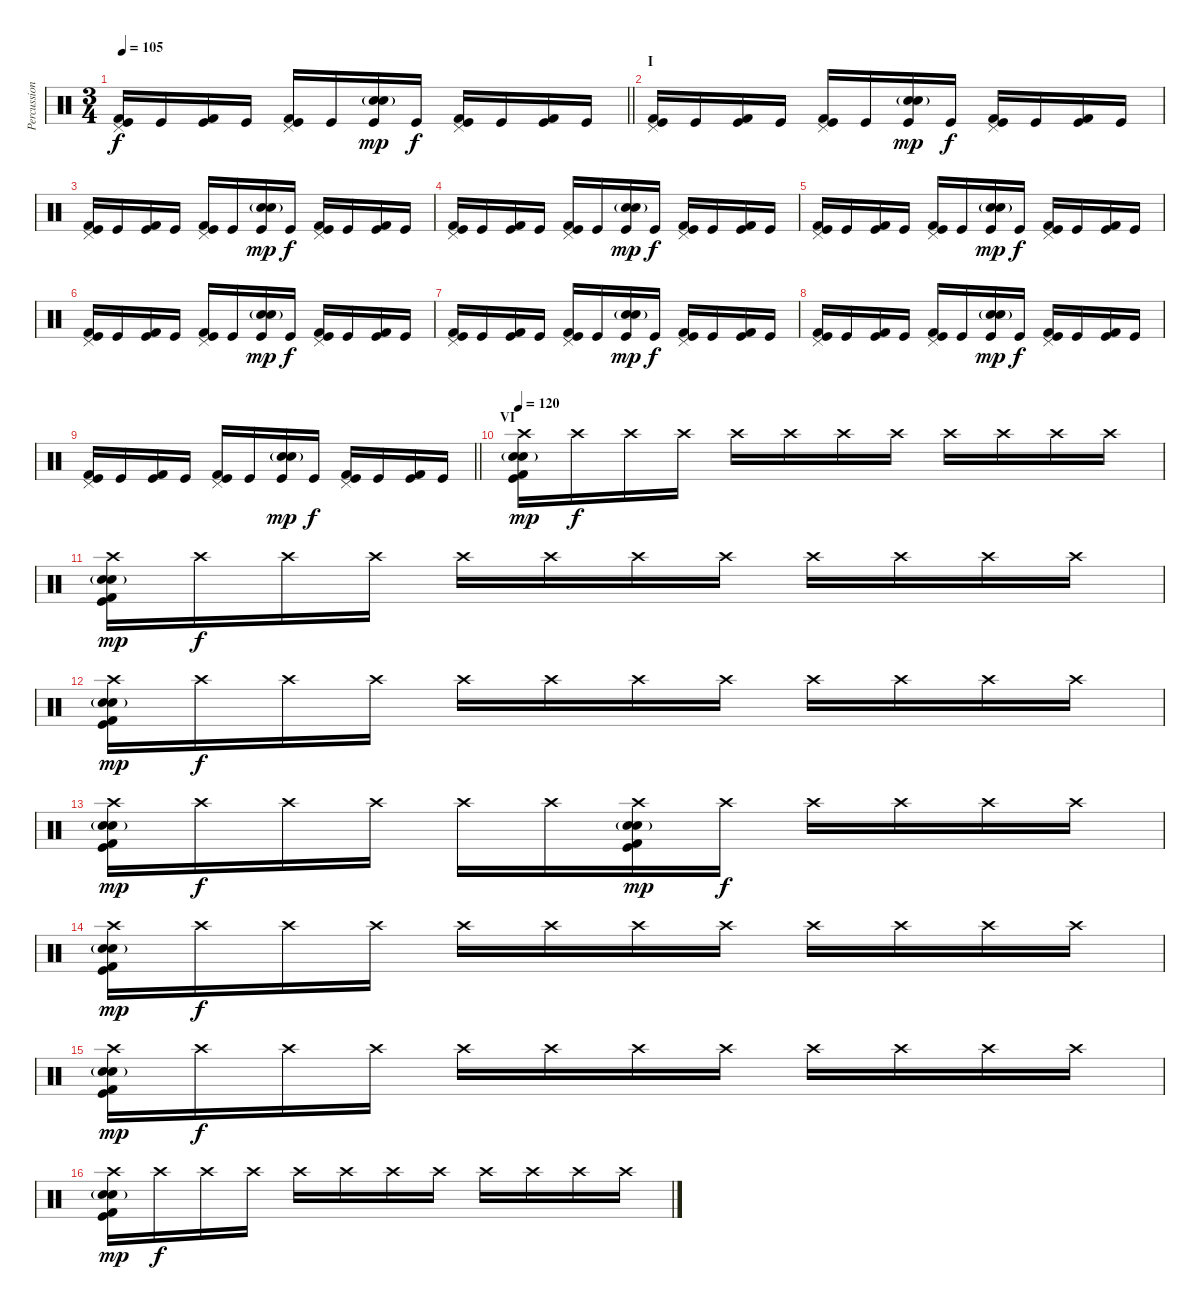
\track ("Percussion" "Percussion") {instrument percussion}
\staff {score}
\articulation defaults
\ts (3 4)
\tempo 105
\clef neutral
\barLineRight lightlight
\ks c
("Kick (hit) 2" "Kick (hit)" "Pedal Hi-Hat (hit)").16{dy f} "Kick (hit)".16 ("Kick (hit) 2" "Kick (hit)").16 "Kick (hit)".16 ("Kick (hit) 2" "Kick (hit)" "Pedal Hi-Hat (hit)").16 "Kick (hit)".16 ("Electric Snare (hit)" "Snare (hit) 2"{g} "Kick (hit)").16{dy mp} "Kick (hit)".16{dy f} ("Kick (hit) 2" "Kick (hit)" "Pedal Hi-Hat (hit)").16 "Kick (hit)".16 ("Kick (hit) 2" "Kick (hit)").16 "Kick (hit)".16 |
\section ("" "I")
("Kick (hit) 2" "Kick (hit)" "Pedal Hi-Hat (hit)").16 "Kick (hit)".16 ("Kick (hit) 2" "Kick (hit)").16 "Kick (hit)".16 ("Kick (hit) 2" "Kick (hit)" "Pedal Hi-Hat (hit)").16 "Kick (hit)".16 ("Electric Snare (hit)" "Snare (hit) 2"{g} "Kick (hit)").16{dy mp} "Kick (hit)".16{dy f} ("Kick (hit) 2" "Kick (hit)" "Pedal Hi-Hat (hit)").16 "Kick (hit)".16 ("Kick (hit) 2" "Kick (hit)").16 "Kick (hit)".16 |
("Kick (hit) 2" "Kick (hit)" "Pedal Hi-Hat (hit)").16 "Kick (hit)".16 ("Kick (hit) 2" "Kick (hit)").16 "Kick (hit)".16 ("Kick (hit) 2" "Kick (hit)" "Pedal Hi-Hat (hit)").16 "Kick (hit)".16 ("Electric Snare (hit)" "Snare (hit) 2"{g} "Kick (hit)").16{dy mp} "Kick (hit)".16{dy f} ("Kick (hit) 2" "Kick (hit)" "Pedal Hi-Hat (hit)").16 "Kick (hit)".16 ("Kick (hit) 2" "Kick (hit)").16 "Kick (hit)".16 |
("Kick (hit) 2" "Kick (hit)" "Pedal Hi-Hat (hit)").16 "Kick (hit)".16 ("Kick (hit) 2" "Kick (hit)").16 "Kick (hit)".16 ("Kick (hit) 2" "Kick (hit)" "Pedal Hi-Hat (hit)").16 "Kick (hit)".16 ("Electric Snare (hit)" "Snare (hit) 2"{g} "Kick (hit)").16{dy mp} "Kick (hit)".16{dy f} ("Kick (hit) 2" "Kick (hit)" "Pedal Hi-Hat (hit)").16 "Kick (hit)".16 ("Kick (hit) 2" "Kick (hit)").16 "Kick (hit)".16 |
("Kick (hit) 2" "Kick (hit)" "Pedal Hi-Hat (hit)").16 "Kick (hit)".16 ("Kick (hit) 2" "Kick (hit)").16 "Kick (hit)".16 ("Kick (hit) 2" "Kick (hit)" "Pedal Hi-Hat (hit)").16 "Kick (hit)".16 ("Electric Snare (hit)" "Snare (hit) 2"{g} "Kick (hit)").16{dy mp} "Kick (hit)".16{dy f} ("Kick (hit) 2" "Kick (hit)" "Pedal Hi-Hat (hit)").16 "Kick (hit)".16 ("Kick (hit) 2" "Kick (hit)").16 "Kick (hit)".16 |
("Kick (hit) 2" "Kick (hit)" "Pedal Hi-Hat (hit)").16 "Kick (hit)".16 ("Kick (hit) 2" "Kick (hit)").16 "Kick (hit)".16 ("Kick (hit) 2" "Kick (hit)" "Pedal Hi-Hat (hit)").16 "Kick (hit)".16 ("Electric Snare (hit)" "Snare (hit) 2"{g} "Kick (hit)").16{dy mp} "Kick (hit)".16{dy f} ("Kick (hit) 2" "Kick (hit)" "Pedal Hi-Hat (hit)").16 "Kick (hit)".16 ("Kick (hit) 2" "Kick (hit)").16 "Kick (hit)".16 |
("Kick (hit) 2" "Kick (hit)" "Pedal Hi-Hat (hit)").16 "Kick (hit)".16 ("Kick (hit) 2" "Kick (hit)").16 "Kick (hit)".16 ("Kick (hit) 2" "Kick (hit)" "Pedal Hi-Hat (hit)").16 "Kick (hit)".16 ("Electric Snare (hit)" "Snare (hit) 2"{g} "Kick (hit)").16{dy mp} "Kick (hit)".16{dy f} ("Kick (hit) 2" "Kick (hit)" "Pedal Hi-Hat (hit)").16 "Kick (hit)".16 ("Kick (hit) 2" "Kick (hit)").16 "Kick (hit)".16 |
("Kick (hit) 2" "Kick (hit)" "Pedal Hi-Hat (hit)").16 "Kick (hit)".16 ("Kick (hit) 2" "Kick (hit)").16 "Kick (hit)".16 ("Kick (hit) 2" "Kick (hit)" "Pedal Hi-Hat (hit)").16 "Kick (hit)".16 ("Electric Snare (hit)" "Snare (hit) 2"{g} "Kick (hit)").16{dy mp} "Kick (hit)".16{dy f} ("Kick (hit) 2" "Kick (hit)" "Pedal Hi-Hat (hit)").16 "Kick (hit)".16 ("Kick (hit) 2" "Kick (hit)").16 "Kick (hit)".16 |
\barLineRight lightlight
("Kick (hit) 2" "Kick (hit)" "Pedal Hi-Hat (hit)").16 "Kick (hit)".16 ("Kick (hit) 2" "Kick (hit)").16 "Kick (hit)".16 ("Kick (hit) 2" "Kick (hit)" "Pedal Hi-Hat (hit)").16 "Kick (hit)".16 ("Electric Snare (hit)" "Snare (hit) 2"{g} "Kick (hit)").16{dy mp} "Kick (hit)".16{dy f} ("Kick (hit) 2" "Kick (hit)" "Pedal Hi-Hat (hit)").16 "Kick (hit)".16 ("Kick (hit) 2" "Kick (hit)").16 "Kick (hit)".16 |
\section ("" "VI")
\tempo 120
("Crash high (hit)" "Electric Snare (hit)" "Snare (hit) 2"{g} "Kick (hit) 2" "Kick (hit)").16{dy mp} "Crash high (hit)".16{dy f} "Crash high (hit)".16 "Crash high (hit)".16 "Crash high (hit)".16 "Crash high (hit)".16 "Crash high (hit)".16 "Crash high (hit)".16 "Crash high (hit)".16 "Crash high (hit)".16 "Crash high (hit)".16 "Crash high (hit)".16 |
("Crash high (hit)" "Electric Snare (hit)" "Snare (hit) 2"{g} "Kick (hit) 2" "Kick (hit)").16{dy mp} "Crash high (hit)".16{dy f} "Crash high (hit)".16 "Crash high (hit)".16 "Crash high (hit)".16 "Crash high (hit)".16 "Crash high (hit)".16 "Crash high (hit)".16 "Crash high (hit)".16 "Crash high (hit)".16 "Crash high (hit)".16 "Crash high (hit)".16 |
("Crash high (hit)" "Electric Snare (hit)" "Snare (hit) 2"{g} "Kick (hit) 2" "Kick (hit)").16{dy mp} "Crash high (hit)".16{dy f} "Crash high (hit)".16 "Crash high (hit)".16 "Crash high (hit)".16 "Crash high (hit)".16 "Crash high (hit)".16 "Crash high (hit)".16 "Crash high (hit)".16 "Crash high (hit)".16 "Crash high (hit)".16 "Crash high (hit)".16 |
("Crash high (hit)" "Electric Snare (hit)" "Snare (hit) 2"{g} "Kick (hit) 2" "Kick (hit)").16{dy mp} "Crash high (hit)".16{dy f} "Crash high (hit)".16 "Crash high (hit)".16 "Crash high (hit)".16 "Crash high (hit)".16 ("Crash high (hit)" "Electric Snare (hit)" "Snare (hit) 2"{g} "Kick (hit) 2" "Kick (hit)").16{dy mp} "Crash high (hit)".16{dy f} "Crash high (hit)".16 "Crash high (hit)".16 "Crash high (hit)".16 "Crash high (hit)".16 |
("Crash high (hit)" "Electric Snare (hit)" "Snare (hit) 2"{g} "Kick (hit) 2" "Kick (hit)").16{dy mp} "Crash high (hit)".16{dy f} "Crash high (hit)".16 "Crash high (hit)".16 "Crash high (hit)".16 "Crash high (hit)".16 "Crash high (hit)".16 "Crash high (hit)".16 "Crash high (hit)".16 "Crash high (hit)".16 "Crash high (hit)".16 "Crash high (hit)".16 |
("Crash high (hit)" "Electric Snare (hit)" "Snare (hit) 2"{g} "Kick (hit) 2" "Kick (hit)").16{dy mp} "Crash high (hit)".16{dy f} "Crash high (hit)".16 "Crash high (hit)".16 "Crash high (hit)".16 "Crash high (hit)".16 "Crash high (hit)".16 "Crash high (hit)".16 "Crash high (hit)".16 "Crash high (hit)".16 "Crash high (hit)".16 "Crash high (hit)".16 |
("Crash high (hit)" "Electric Snare (hit)" "Snare (hit) 2"{g} "Kick (hit) 2" "Kick (hit)").16{dy mp} "Crash high (hit)".16{dy f} "Crash high (hit)".16 "Crash high (hit)".16 "Crash high (hit)".16 "Crash high (hit)".16 "Crash high (hit)".16 "Crash high (hit)".16 "Crash high (hit)".16 "Crash high (hit)".16 "Crash high (hit)".16 "Crash high (hit)".16
